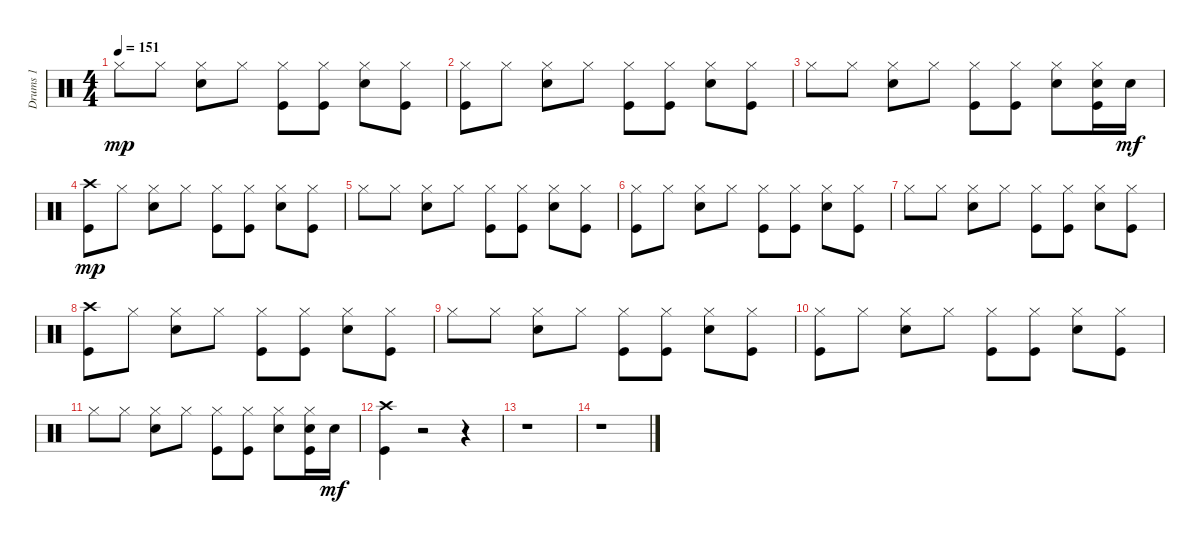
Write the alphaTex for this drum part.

\track ("Drums 1" "Drums 1") {instrument percussion}
\staff {score}
\articulation defaults
\ts (4 4)
\tempo 151
\clef neutral
\ks c "Hi-Hat (closed)".8{dy mp} "Hi-Hat (closed)".8
("Hi-Hat (closed)" "Snare (hit) 2").8 "Hi-Hat (closed)".8 ("Kick (hit)" "Hi-Hat (closed)").8 ("Kick (hit)" "Hi-Hat (closed)").8 ("Snare (hit) 2" "Hi-Hat (closed)").8 ("Hi-Hat (closed)" "Kick (hit)").8 |
("Hi-Hat (closed)" "Kick (hit)").8 "Hi-Hat (closed)".8 ("Hi-Hat (closed)" "Snare (hit) 2").8 "Hi-Hat (closed)".8 ("Hi-Hat (closed)" "Kick (hit)").8 ("Kick (hit)" "Hi-Hat (closed)").8 ("Hi-Hat (closed)" "Snare (hit) 2").8 ("Hi-Hat (closed)" "Kick (hit)").8 |
"Hi-Hat (closed)".8 "Hi-Hat (closed)".8 ("Hi-Hat (closed)" "Snare (hit) 2").8 "Hi-Hat (closed)".8 ("Kick (hit)" "Hi-Hat (closed)").8 ("Kick (hit)" "Hi-Hat (closed)").8 ("Snare (hit) 2" "Hi-Hat (closed)").8 ("Snare (hit) 2" "Hi-Hat (closed)" "Kick (hit)").16 "Snare (hit) 2".16{dy mf} |
("Crash high (hit)" "Kick (hit)").8{dy mp} "Hi-Hat (closed)".8 ("Hi-Hat (closed)" "Snare (hit) 2").8 "Hi-Hat (closed)".8 ("Hi-Hat (closed)" "Kick (hit)").8 ("Kick (hit)" "Hi-Hat (closed)").8 ("Hi-Hat (closed)" "Snare (hit) 2").8 ("Hi-Hat (closed)" "Kick (hit)").8 |
"Hi-Hat (closed)".8 "Hi-Hat (closed)".8 ("Hi-Hat (closed)" "Snare (hit) 2").8 "Hi-Hat (closed)".8 ("Kick (hit)" "Hi-Hat (closed)").8 ("Kick (hit)" "Hi-Hat (closed)").8 ("Snare (hit) 2" "Hi-Hat (closed)").8 ("Hi-Hat (closed)" "Kick (hit)").8 |
("Hi-Hat (closed)" "Kick (hit)").8 "Hi-Hat (closed)".8 ("Hi-Hat (closed)" "Snare (hit) 2").8 "Hi-Hat (closed)".8 ("Hi-Hat (closed)" "Kick (hit)").8 ("Kick (hit)" "Hi-Hat (closed)").8 ("Hi-Hat (closed)" "Snare (hit) 2").8 ("Hi-Hat (closed)" "Kick (hit)").8 |
"Hi-Hat (closed)".8 "Hi-Hat (closed)".8 ("Hi-Hat (closed)" "Snare (hit) 2").8 "Hi-Hat (closed)".8 ("Kick (hit)" "Hi-Hat (closed)").8 ("Kick (hit)" "Hi-Hat (closed)").8 ("Snare (hit) 2" "Hi-Hat (closed)").8 ("Hi-Hat (closed)" "Kick (hit)").8 |
("Crash high (hit)" "Kick (hit)").8 "Hi-Hat (closed)".8 ("Hi-Hat (closed)" "Snare (hit) 2").8 "Hi-Hat (closed)".8 ("Hi-Hat (closed)" "Kick (hit)").8 ("Kick (hit)" "Hi-Hat (closed)").8 ("Hi-Hat (closed)" "Snare (hit) 2").8 ("Hi-Hat (closed)" "Kick (hit)").8 |
"Hi-Hat (closed)".8 "Hi-Hat (closed)".8 ("Hi-Hat (closed)" "Snare (hit) 2").8 "Hi-Hat (closed)".8 ("Kick (hit)" "Hi-Hat (closed)").8 ("Kick (hit)" "Hi-Hat (closed)").8 ("Snare (hit) 2" "Hi-Hat (closed)").8 ("Hi-Hat (closed)" "Kick (hit)").8 |
("Hi-Hat (closed)" "Kick (hit)").8 "Hi-Hat (closed)".8 ("Hi-Hat (closed)" "Snare (hit) 2").8 "Hi-Hat (closed)".8 ("Hi-Hat (closed)" "Kick (hit)").8 ("Kick (hit)" "Hi-Hat (closed)").8 ("Hi-Hat (closed)" "Snare (hit) 2").8 ("Hi-Hat (closed)" "Kick (hit)").8 |
"Hi-Hat (closed)".8 "Hi-Hat (closed)".8 ("Hi-Hat (closed)" "Snare (hit) 2").8 "Hi-Hat (closed)".8 ("Kick (hit)" "Hi-Hat (closed)").8 ("Kick (hit)" "Hi-Hat (closed)").8 ("Snare (hit) 2" "Hi-Hat (closed)").8 ("Snare (hit) 2" "Hi-Hat (closed)" "Kick (hit)").16 "Snare (hit) 2".16{dy mf} |
("Crash high (hit)" "Kick (hit)").4 r.2 r.4 |
r.1 |
r.1
